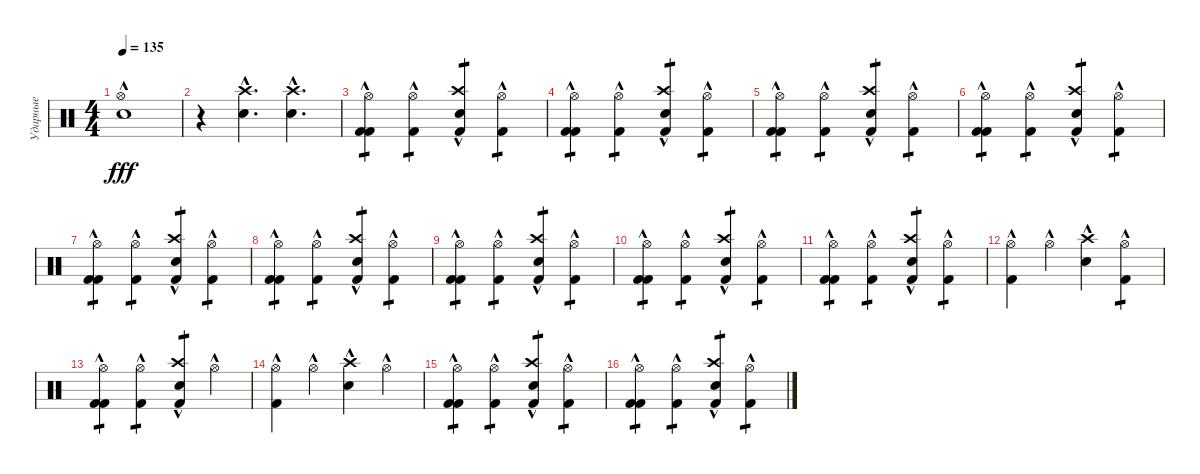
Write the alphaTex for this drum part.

\track ("Ударные" "Ударные") {instrument percussion}
\staff
\articulation defaults
\ts (4 4)
\tempo 135
\clef neutral
\ks c
("Hi-Hat (open)"{hac} "Electric Snare (hit)"{hac}).1{dy fff} |
r.4 ("Electric Snare (hit)"{hac} "Crash high (hit)"{hac}).4{d} ("Electric Snare (hit)"{hac} "Crash high (hit)"{hac}).4{d} |
("Kick (hit) 2"{hac} "Kick (hit) 2"{hac} "Hi-Hat (open)"{hac}).4{tp 1} ("Kick (hit) 2"{hac} "Hi-Hat (open)"{hac}).4{tp 1} ("Kick (hit) 2"{hac} "Electric Snare (hit)"{hac} "Crash high (hit)"{hac}).4{tp 1} ("Kick (hit) 2"{hac} "Hi-Hat (open)"{hac}).4{tp 1} |
("Kick (hit) 2"{hac} "Kick (hit) 2"{hac} "Hi-Hat (open)"{hac}).4{tp 1} ("Kick (hit) 2"{hac} "Hi-Hat (open)"{hac}).4{tp 1} ("Kick (hit) 2"{hac} "Electric Snare (hit)"{hac} "Crash high (hit)"{hac}).4{tp 1} ("Kick (hit) 2"{hac} "Hi-Hat (open)"{hac}).4{tp 1} |
("Kick (hit) 2"{hac} "Kick (hit) 2"{hac} "Hi-Hat (open)"{hac}).4{tp 1} ("Kick (hit) 2"{hac} "Hi-Hat (open)"{hac}).4{tp 1} ("Kick (hit) 2"{hac} "Electric Snare (hit)"{hac} "Crash high (hit)"{hac}).4{tp 1} ("Kick (hit) 2"{hac} "Hi-Hat (open)"{hac}).4{tp 1} |
("Kick (hit) 2"{hac} "Kick (hit) 2"{hac} "Hi-Hat (open)"{hac}).4{tp 1} ("Kick (hit) 2"{hac} "Hi-Hat (open)"{hac}).4{tp 1} ("Kick (hit) 2"{hac} "Electric Snare (hit)"{hac} "Crash high (hit)"{hac}).4{tp 1} ("Kick (hit) 2"{hac} "Hi-Hat (open)"{hac}).4{tp 1} |
("Kick (hit) 2"{hac} "Kick (hit) 2"{hac} "Hi-Hat (open)"{hac}).4{tp 1} ("Kick (hit) 2"{hac} "Hi-Hat (open)"{hac}).4{tp 1} ("Kick (hit) 2"{hac} "Electric Snare (hit)"{hac} "Crash high (hit)"{hac}).4{tp 1} ("Kick (hit) 2"{hac} "Hi-Hat (open)"{hac}).4{tp 1} |
("Kick (hit) 2"{hac} "Kick (hit) 2"{hac} "Hi-Hat (open)"{hac}).4{tp 1} ("Kick (hit) 2"{hac} "Hi-Hat (open)"{hac}).4{tp 1} ("Kick (hit) 2"{hac} "Electric Snare (hit)"{hac} "Crash high (hit)"{hac}).4{tp 1} ("Kick (hit) 2"{hac} "Hi-Hat (open)"{hac}).4{tp 1} |
("Kick (hit) 2"{hac} "Kick (hit) 2"{hac} "Hi-Hat (open)"{hac}).4{tp 1} ("Kick (hit) 2"{hac} "Hi-Hat (open)"{hac}).4{tp 1} ("Kick (hit) 2"{hac} "Electric Snare (hit)"{hac} "Crash high (hit)"{hac}).4{tp 1} ("Kick (hit) 2"{hac} "Hi-Hat (open)"{hac}).4{tp 1} |
("Kick (hit) 2"{hac} "Kick (hit) 2"{hac} "Hi-Hat (open)"{hac}).4{tp 1} ("Kick (hit) 2"{hac} "Hi-Hat (open)"{hac}).4{tp 1} ("Kick (hit) 2"{hac} "Electric Snare (hit)"{hac} "Crash high (hit)"{hac}).4{tp 1} ("Kick (hit) 2"{hac} "Hi-Hat (open)"{hac}).4{tp 1} |
("Kick (hit) 2"{hac} "Kick (hit) 2"{hac} "Hi-Hat (open)"{hac}).4{tp 1} ("Kick (hit) 2"{hac} "Hi-Hat (open)"{hac}).4{tp 1} ("Kick (hit) 2"{hac} "Electric Snare (hit)"{hac} "Crash high (hit)"{hac}).4{tp 1} ("Kick (hit) 2"{hac} "Hi-Hat (open)"{hac}).4{tp 1} |
("Kick (hit) 2"{hac} "Hi-Hat (open)"{hac}).4 "Hi-Hat (open)"{hac}.4 ("Electric Snare (hit)"{hac} "Crash high (hit)"{hac}).4 ("Kick (hit) 2"{hac} "Hi-Hat (open)"{hac}).4{tp 1} |
("Kick (hit) 2"{hac} "Kick (hit) 2"{hac} "Hi-Hat (open)"{hac}).4{tp 1} ("Kick (hit) 2"{hac} "Hi-Hat (open)"{hac}).4{tp 1} ("Kick (hit) 2"{hac} "Electric Snare (hit)"{hac} "Crash high (hit)"{hac}).4{tp 1} "Hi-Hat (open)"{hac}.4 |
("Kick (hit) 2"{hac} "Hi-Hat (open)"{hac}).4 "Hi-Hat (open)"{hac}.4 ("Electric Snare (hit)"{hac} "Crash high (hit)"{hac}).4 "Hi-Hat (open)"{hac}.4 |
("Kick (hit) 2"{hac} "Kick (hit) 2"{hac} "Hi-Hat (open)"{hac}).4{tp 1} ("Kick (hit) 2"{hac} "Hi-Hat (open)"{hac}).4{tp 1} ("Kick (hit) 2"{hac} "Electric Snare (hit)"{hac} "Crash high (hit)"{hac}).4{tp 1} ("Kick (hit) 2"{hac} "Hi-Hat (open)"{hac}).4{tp 1} |
("Kick (hit) 2"{hac} "Kick (hit) 2"{hac} "Hi-Hat (open)"{hac}).4{tp 1} ("Kick (hit) 2"{hac} "Hi-Hat (open)"{hac}).4{tp 1} ("Kick (hit) 2"{hac} "Electric Snare (hit)"{hac} "Crash high (hit)"{hac}).4{tp 1} ("Kick (hit) 2"{hac} "Hi-Hat (open)"{hac}).4{tp 1}
